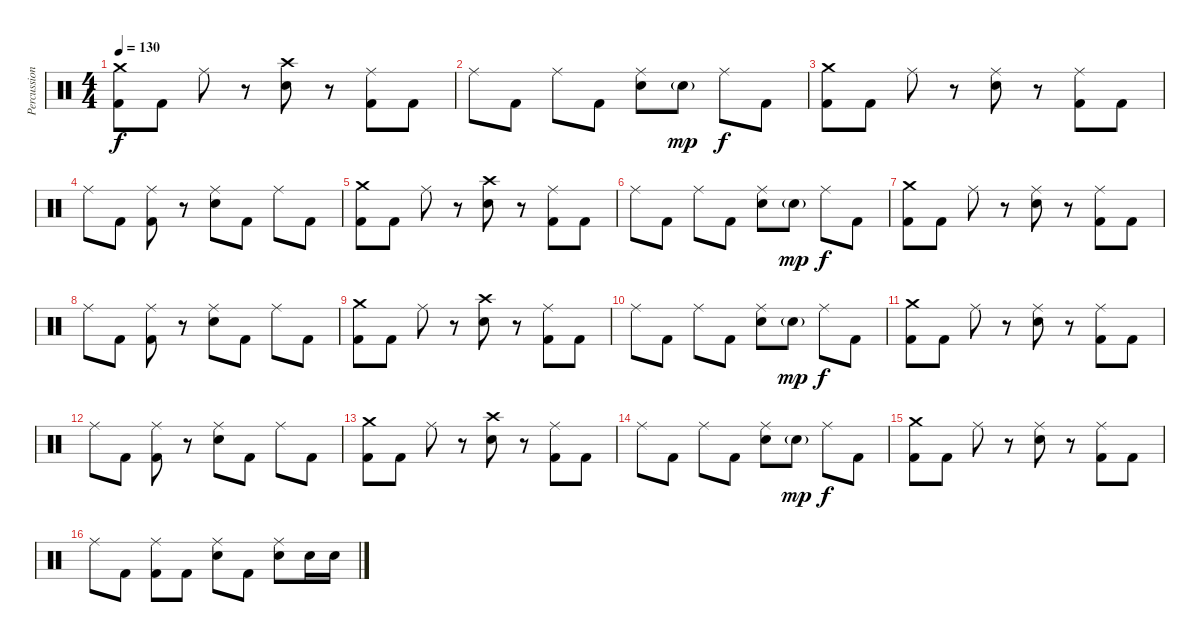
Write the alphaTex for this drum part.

\track ("Percussion" "Percussion") {instrument percussion}
\staff {score}
\articulation defaults
\ts (4 4)
\tempo 130
\clef neutral
\ks c
("Crash medium (hit)" "Kick (hit) 2").8{dy f} "Kick (hit) 2".8 "Ride (middle)".8 r.8 ("Crash high (hit)" "Snare (hit) 2").8 r.8 ("Ride (middle)" "Kick (hit) 2").8 "Kick (hit) 2".8 |
"Ride (middle)".8 "Kick (hit) 2".8 "Ride (middle)".8 "Kick (hit) 2".8 ("Ride (middle)" "Snare (hit) 2").8 "Snare (hit) 2"{g}.8{dy mp} "Ride (middle)".8{dy f} "Kick (hit) 2".8 |
("Crash medium (hit)" "Kick (hit) 2").8 "Kick (hit) 2".8 "Ride (middle)".8 r.8 ("Ride (middle)" "Snare (hit) 2").8 r.8 ("Ride (middle)" "Kick (hit) 2").8 "Kick (hit) 2".8 |
"Ride (middle)".8 "Kick (hit) 2".8 ("Ride (middle)" "Kick (hit) 2").8 r.8 ("Ride (middle)" "Snare (hit) 2").8 "Kick (hit) 2".8 "Ride (middle)".8 "Kick (hit) 2".8 |
("Crash medium (hit)" "Kick (hit) 2").8 "Kick (hit) 2".8 "Ride (middle)".8 r.8 ("Crash high (hit)" "Snare (hit) 2").8 r.8 ("Ride (middle)" "Kick (hit) 2").8 "Kick (hit) 2".8 |
"Ride (middle)".8 "Kick (hit) 2".8 "Ride (middle)".8 "Kick (hit) 2".8 ("Ride (middle)" "Snare (hit) 2").8 "Snare (hit) 2"{g}.8{dy mp} "Ride (middle)".8{dy f} "Kick (hit) 2".8 |
("Crash medium (hit)" "Kick (hit) 2").8 "Kick (hit) 2".8 "Ride (middle)".8 r.8 ("Ride (middle)" "Snare (hit) 2").8 r.8 ("Ride (middle)" "Kick (hit) 2").8 "Kick (hit) 2".8 |
"Ride (middle)".8 "Kick (hit) 2".8 ("Ride (middle)" "Kick (hit) 2").8 r.8 ("Ride (middle)" "Snare (hit) 2").8 "Kick (hit) 2".8 "Ride (middle)".8 "Kick (hit) 2".8 |
("Crash medium (hit)" "Kick (hit) 2").8 "Kick (hit) 2".8 "Ride (middle)".8 r.8 ("Crash high (hit)" "Snare (hit) 2").8 r.8 ("Ride (middle)" "Kick (hit) 2").8 "Kick (hit) 2".8 |
"Ride (middle)".8 "Kick (hit) 2".8 "Ride (middle)".8 "Kick (hit) 2".8 ("Ride (middle)" "Snare (hit) 2").8 "Snare (hit) 2"{g}.8{dy mp} "Ride (middle)".8{dy f} "Kick (hit) 2".8 |
("Crash medium (hit)" "Kick (hit) 2").8 "Kick (hit) 2".8 "Ride (middle)".8 r.8 ("Ride (middle)" "Snare (hit) 2").8 r.8 ("Ride (middle)" "Kick (hit) 2").8 "Kick (hit) 2".8 |
"Ride (middle)".8 "Kick (hit) 2".8 ("Ride (middle)" "Kick (hit) 2").8 r.8 ("Ride (middle)" "Snare (hit) 2").8 "Kick (hit) 2".8 "Ride (middle)".8 "Kick (hit) 2".8 |
("Crash medium (hit)" "Kick (hit) 2").8 "Kick (hit) 2".8 "Ride (middle)".8 r.8 ("Crash high (hit)" "Snare (hit) 2").8 r.8 ("Ride (middle)" "Kick (hit) 2").8 "Kick (hit) 2".8 |
"Ride (middle)".8 "Kick (hit) 2".8 "Ride (middle)".8 "Kick (hit) 2".8 ("Ride (middle)" "Snare (hit) 2").8 "Snare (hit) 2"{g}.8{dy mp} "Ride (middle)".8{dy f} "Kick (hit) 2".8 |
("Crash medium (hit)" "Kick (hit) 2").8 "Kick (hit) 2".8 "Ride (middle)".8 r.8 ("Ride (middle)" "Snare (hit) 2").8 r.8 ("Ride (middle)" "Kick (hit) 2").8 "Kick (hit) 2".8 |
"Ride (middle)".8 "Kick (hit) 2".8 ("Ride (middle)" "Kick (hit) 2").8 "Kick (hit) 2".8 ("Ride (middle)" "Snare (hit) 2").8 "Kick (hit) 2".8 ("Ride (middle)" "Snare (hit) 2").8 "Snare (hit) 2".16 "Snare (hit) 2".16
